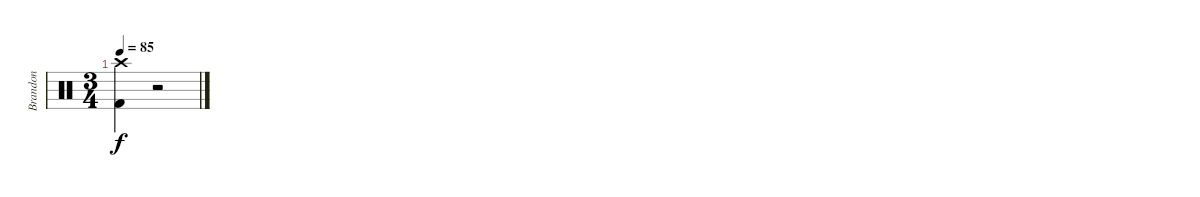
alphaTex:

\track ("Brandon" "Brandon") {instrument percussion}
\staff {score}
\articulation defaults
\ts (3 4)
\tempo 85
\clef neutral
\ks c
("Crash high (hit)" "Kick (hit) 2").4{dy f} r.2
